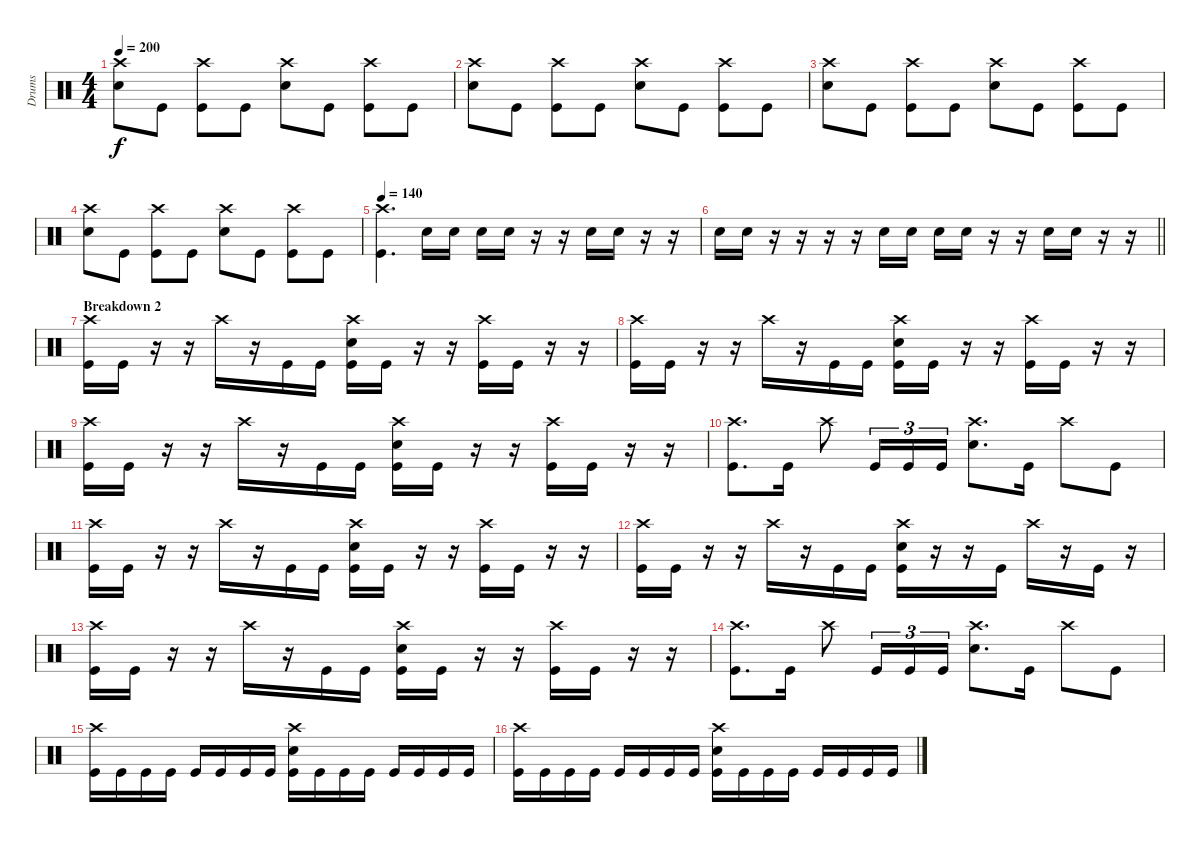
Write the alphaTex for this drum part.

\track ("Drums" "Drums") {instrument percussion}
\staff {score}
\articulation defaults
\ts (4 4)
\tempo 200
\clef neutral
\ks c
("Crash high (hit)" "Snare (hit) 2").8{dy f} "Kick (hit)".8 ("Crash high (hit)" "Kick (hit)").8 "Kick (hit)".8 ("Crash high (hit)" "Snare (hit) 2").8 "Kick (hit)".8 ("Crash high (hit)" "Kick (hit)").8 "Kick (hit)".8 |
("Crash high (hit)" "Snare (hit) 2").8 "Kick (hit)".8 ("Crash high (hit)" "Kick (hit)").8 "Kick (hit)".8 ("Crash high (hit)" "Snare (hit) 2").8 "Kick (hit)".8 ("Crash high (hit)" "Kick (hit)").8 "Kick (hit)".8 |
("Crash high (hit)" "Snare (hit) 2").8 "Kick (hit)".8 ("Crash high (hit)" "Kick (hit)").8 "Kick (hit)".8 ("Crash high (hit)" "Snare (hit) 2").8 "Kick (hit)".8 ("Crash high (hit)" "Kick (hit)").8 "Kick (hit)".8 |
("Crash high (hit)" "Snare (hit) 2").8 "Kick (hit)".8 ("Crash high (hit)" "Kick (hit)").8 "Kick (hit)".8 ("Crash high (hit)" "Snare (hit) 2").8 "Kick (hit)".8 ("Crash high (hit)" "Kick (hit)").8 "Kick (hit)".8 |
\tempo 140
("Crash high (hit)" "Kick (hit)").4{d} "Snare (hit) 2".16 "Snare (hit) 2".16 "Snare (hit) 2".16 "Snare (hit) 2".16 r.16 r.16 "Snare (hit) 2".16 "Snare (hit) 2".16 r.16 r.16 |
\barLineRight lightlight "Snare (hit) 2".16 "Snare (hit) 2".16
r.16 r.16 r.16 r.16 "Snare (hit) 2".16 "Snare (hit) 2".16 "Snare (hit) 2".16 "Snare (hit) 2".16 r.16 r.16 "Snare (hit) 2".16 "Snare (hit) 2".16 r.16 r.16 |
\section ("" "Breakdown 2")
("Crash high (hit)" "Kick (hit)").16 "Kick (hit)".16 r.16 r.16 "Crash high (hit)".16 r.16 "Kick (hit)".16 "Kick (hit)".16 ("Snare (hit) 2" "Crash high (hit)" "Kick (hit)").16 "Kick (hit)".16 r.16 r.16 ("Crash high (hit)" "Kick (hit)").16 "Kick (hit)".16 r.16 r.16 |
("Crash high (hit)" "Kick (hit)").16 "Kick (hit)".16 r.16 r.16 "Crash high (hit)".16 r.16 "Kick (hit)".16 "Kick (hit)".16 ("Snare (hit) 2" "Crash high (hit)" "Kick (hit)").16 "Kick (hit)".16 r.16 r.16 ("Crash high (hit)" "Kick (hit)").16 "Kick (hit)".16 r.16 r.16 |
("Crash high (hit)" "Kick (hit)").16 "Kick (hit)".16 r.16 r.16 "Crash high (hit)".16 r.16 "Kick (hit)".16 "Kick (hit)".16 ("Snare (hit) 2" "Crash high (hit)" "Kick (hit)").16 "Kick (hit)".16 r.16 r.16 ("Crash high (hit)" "Kick (hit)").16 "Kick (hit)".16 r.16 r.16 |
("Crash high (hit)" "Kick (hit)").8{d} "Kick (hit)".16 "Crash high (hit)".8 "Kick (hit)".16{tu (3 2)} "Kick (hit)".16{tu (3 2)} "Kick (hit)".16{tu (3 2)} ("Crash high (hit)" "Snare (hit) 2").8{d} "Kick (hit)".16 "Crash high (hit)".8 "Kick (hit)".8 |
("Crash high (hit)" "Kick (hit)").16 "Kick (hit)".16 r.16 r.16 "Crash high (hit)".16 r.16 "Kick (hit)".16 "Kick (hit)".16 ("Snare (hit) 2" "Crash high (hit)" "Kick (hit)").16 "Kick (hit)".16 r.16 r.16 ("Crash high (hit)" "Kick (hit)").16 "Kick (hit)".16 r.16 r.16 |
("Crash high (hit)" "Kick (hit)").16 "Kick (hit)".16 r.16 r.16 "Crash high (hit)".16 r.16 "Kick (hit)".16 "Kick (hit)".16 ("Snare (hit) 2" "Crash high (hit)" "Kick (hit)").16 r.16 r.16 "Kick (hit)".16 "Crash high (hit)".16 r.16 "Kick (hit)".16 r.16 |
("Crash high (hit)" "Kick (hit)").16 "Kick (hit)".16 r.16 r.16 "Crash high (hit)".16 r.16 "Kick (hit)".16 "Kick (hit)".16 ("Snare (hit) 2" "Crash high (hit)" "Kick (hit)").16 "Kick (hit)".16 r.16 r.16 ("Crash high (hit)" "Kick (hit)").16 "Kick (hit)".16 r.16 r.16 |
("Crash high (hit)" "Kick (hit)").8{d} "Kick (hit)".16 "Crash high (hit)".8 "Kick (hit)".16{tu (3 2)} "Kick (hit)".16{tu (3 2)} "Kick (hit)".16{tu (3 2)} ("Crash high (hit)" "Snare (hit) 2").8{d} "Kick (hit)".16 "Crash high (hit)".8 "Kick (hit)".8 |
("Crash high (hit)" "Kick (hit)").16 "Kick (hit)".16 "Kick (hit)".16 "Kick (hit)".16 "Kick (hit)".16 "Kick (hit)".16 "Kick (hit)".16 "Kick (hit)".16 ("Crash high (hit)" "Snare (hit) 2" "Kick (hit)").16 "Kick (hit)".16 "Kick (hit)".16 "Kick (hit)".16 "Kick (hit)".16 "Kick (hit)".16 "Kick (hit)".16 "Kick (hit)".16 |
("Crash high (hit)" "Kick (hit)").16 "Kick (hit)".16 "Kick (hit)".16 "Kick (hit)".16 "Kick (hit)".16 "Kick (hit)".16 "Kick (hit)".16 "Kick (hit)".16 ("Crash high (hit)" "Snare (hit) 2" "Kick (hit)").16 "Kick (hit)".16 "Kick (hit)".16 "Kick (hit)".16 "Kick (hit)".16 "Kick (hit)".16 "Kick (hit)".16 "Kick (hit)".16
